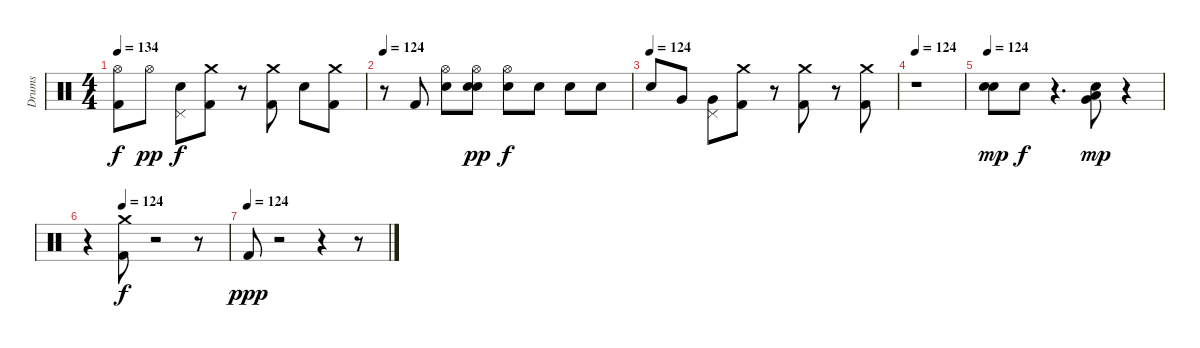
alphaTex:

\track ("Drums" "Drums") {instrument percussion}
\staff {score}
\articulation defaults
\ts (4 4)
\tempo 134
\clef neutral
\ks c
("Hi-Hat (open)" "Kick (hit) 2").8{dy f} "Hi-Hat (open)".8{dy pp} ("Pedal Hi-Hat (hit)" "Electric Snare (hit)").8{dy f} ("Crash medium (hit)" "Kick (hit) 2").8 r.8 ("Crash medium (hit)" "Kick (hit) 2").8 "Electric Snare (hit)".8 ("Crash medium (hit)" "Kick (hit) 2").8 |
\tempo 124
r.8 "Kick (hit) 2".8 ("Hi-Hat (open)" "Electric Snare (hit)").8 ("Electric Snare (hit)" "Hi-Hat (open)" "Electric Snare (hit)").8{dy pp} ("Electric Snare (hit)" "Hi-Hat (open)").8{dy f} "Electric Snare (hit)".8 "Electric Snare (hit)".8 "Electric Snare (hit)".8 |
\tempo (124)
"Electric Snare (hit)".8 "Very Low Tom (hit)".8 ("Very Low Tom (hit)" "Pedal Hi-Hat (hit)").8 ("Crash medium (hit)" "Kick (hit) 2").8 r.8 ("Crash medium (hit)" "Kick (hit) 2").8 r.8 ("Kick (hit) 2" "Crash medium (hit)").8 |
\tempo 124
r.1 |
\tempo 124
("Electric Snare (hit)" "Electric Snare (hit)").8{dy mp} "Electric Snare (hit)".8{dy f} r.4{d} ("Electric Snare (hit)" "Low Floor Tom (hit)" "Very Low Tom (hit)").8{dy mp} r.4 |
\tempo (124 0.25)
r.4 ("Crash medium (hit)" "Kick (hit) 2").8{dy f} r.2 r.8 |
\tempo (124)
"Kick (hit) 2".8{dy ppp} r.2 r.4 r.8
